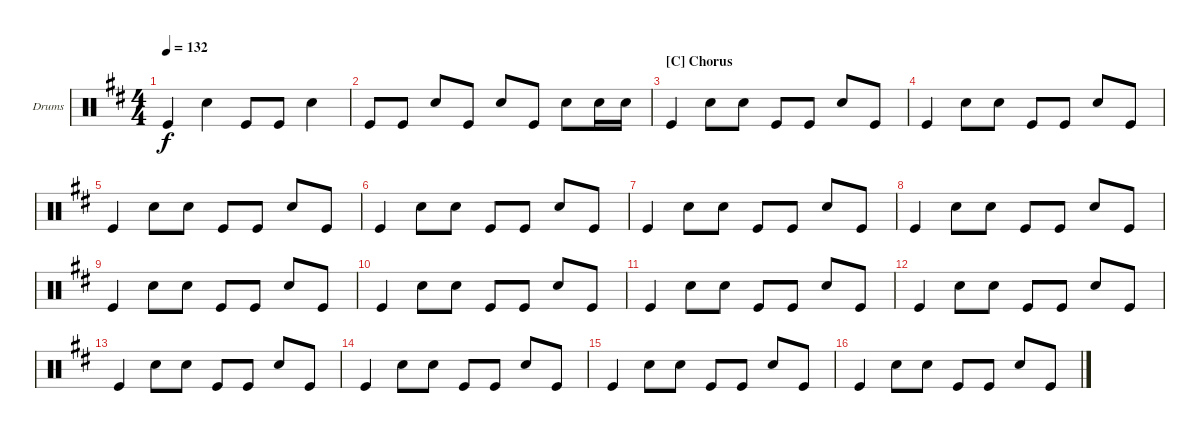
\defaultSystemsLayout 4
\bracketExtendMode groupsimilarinstruments
\firstSystemTrackNameOrientation horizontal
\otherSystemsTrackNameOrientation horizontal
\track ("Drumkit" "Drums") {instrument percussion}
\staff {score}
\articulation defaults
\ts (4 4)
\tempo 132
\clef neutral
\scale
1.05044
\ks d "Kick (hit)".4{dy f} "Snare (hit) 2".4 "Kick (hit)".8 "Kick (hit)".8 "Snare (hit) 2".4
|
\scale
0.949559 "Kick (hit)".8 "Kick (hit)".8 "Snare (hit) 2".8 "Kick (hit)".8 "Snare (hit) 2".8 "Kick (hit)".8 "Snare (hit) 2".8 "Snare (hit) 2".16 "Snare (hit) 2".16 |
\section ("C" "Chorus")
\scale
1.05044 "Kick (hit)".4 "Snare (hit) 2".8 "Snare (hit) 2".8 "Kick (hit)".8 "Kick (hit)".8 "Snare (hit) 2".8 "Kick (hit)".8 |
\scale
0.949559 "Kick (hit)".4 "Snare (hit) 2".8 "Snare (hit) 2".8 "Kick (hit)".8 "Kick (hit)".8 "Snare (hit) 2".8 "Kick (hit)".8 |
\scale
1.05044 "Kick (hit)".4 "Snare (hit) 2".8 "Snare (hit) 2".8 "Kick (hit)".8 "Kick (hit)".8 "Snare (hit) 2".8 "Kick (hit)".8 |
\scale
0.949559 "Kick (hit)".4 "Snare (hit) 2".8 "Snare (hit) 2".8 "Kick (hit)".8 "Kick (hit)".8 "Snare (hit) 2".8 "Kick (hit)".8 |
\scale
1.05044 "Kick (hit)".4 "Snare (hit) 2".8 "Snare (hit) 2".8 "Kick (hit)".8 "Kick (hit)".8 "Snare (hit) 2".8 "Kick (hit)".8 |
\scale
0.949559 "Kick (hit)".4 "Snare (hit) 2".8 "Snare (hit) 2".8 "Kick (hit)".8 "Kick (hit)".8 "Snare (hit) 2".8 "Kick (hit)".8 |
\scale
1.05044 "Kick (hit)".4 "Snare (hit) 2".8 "Snare (hit) 2".8 "Kick (hit)".8 "Kick (hit)".8 "Snare (hit) 2".8 "Kick (hit)".8 |
\scale
0.949559 "Kick (hit)".4 "Snare (hit) 2".8 "Snare (hit) 2".8 "Kick (hit)".8 "Kick (hit)".8 "Snare (hit) 2".8 "Kick (hit)".8 |
\scale
1.05044 "Kick (hit)".4 "Snare (hit) 2".8 "Snare (hit) 2".8 "Kick (hit)".8 "Kick (hit)".8 "Snare (hit) 2".8 "Kick (hit)".8 |
\scale
0.949559 "Kick (hit)".4 "Snare (hit) 2".8 "Snare (hit) 2".8 "Kick (hit)".8 "Kick (hit)".8 "Snare (hit) 2".8 "Kick (hit)".8 |
\scale
1.05044 "Kick (hit)".4 "Snare (hit) 2".8 "Snare (hit) 2".8 "Kick (hit)".8 "Kick (hit)".8 "Snare (hit) 2".8 "Kick (hit)".8 |
\scale
0.949559 "Kick (hit)".4 "Snare (hit) 2".8 "Snare (hit) 2".8 "Kick (hit)".8 "Kick (hit)".8 "Snare (hit) 2".8 "Kick (hit)".8 |
\scale
1.05044 "Kick (hit)".4 "Snare (hit) 2".8 "Snare (hit) 2".8 "Kick (hit)".8 "Kick (hit)".8 "Snare (hit) 2".8 "Kick (hit)".8 |
\scale
0.949559 "Kick (hit)".4 "Snare (hit) 2".8 "Snare (hit) 2".8 "Kick (hit)".8 "Kick (hit)".8 "Snare (hit) 2".8 "Kick (hit)".8
